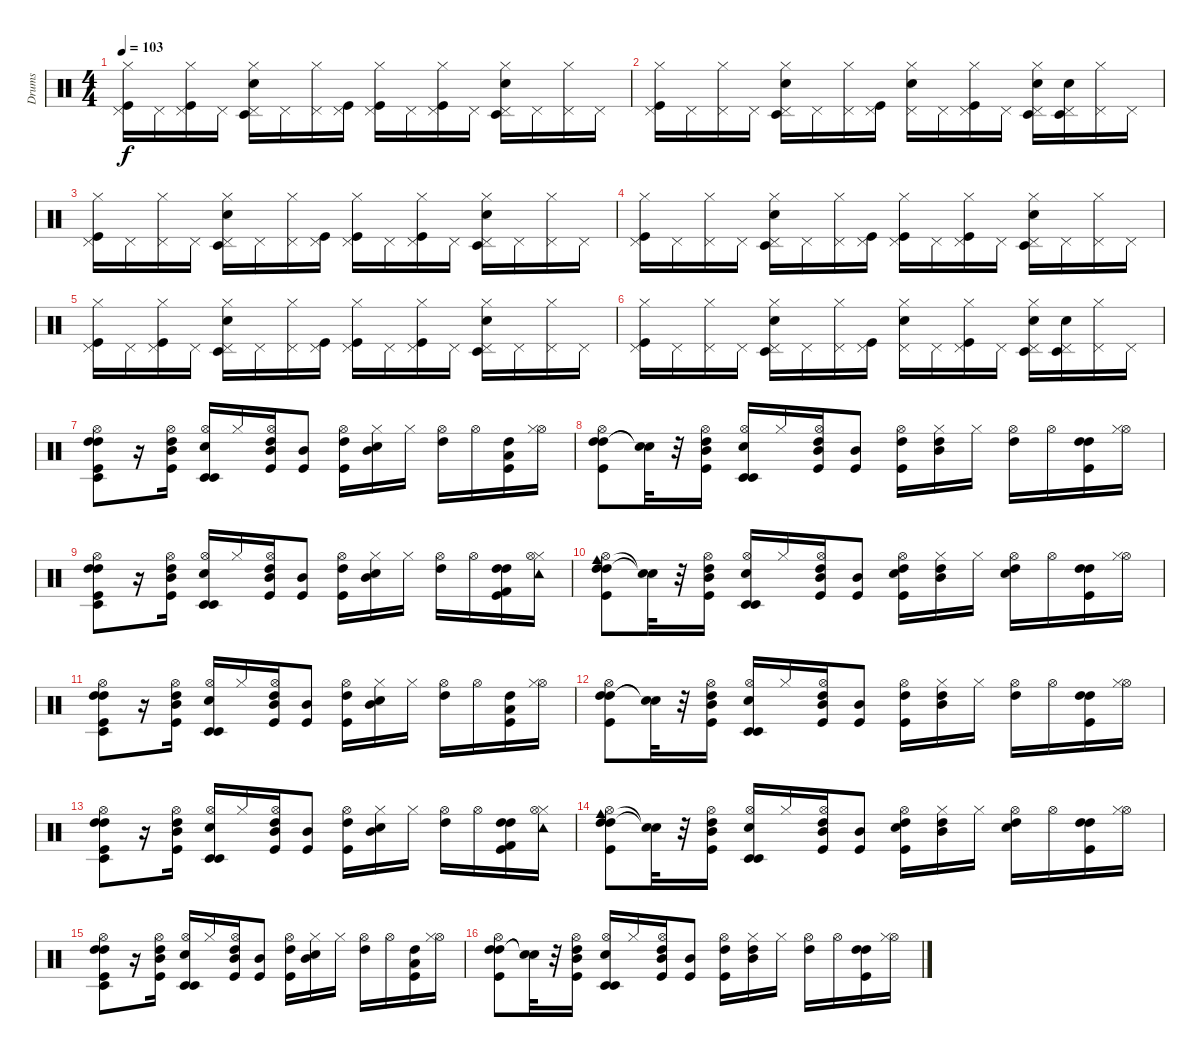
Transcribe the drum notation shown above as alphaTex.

\track ("Drums" "Drums") {instrument percussion}
\staff {score}
\articulation defaults
\ts (4 4)
\tempo 103
\clef neutral
\ks c
("Hi-Hat (closed)" "Kick (hit)" "Pedal Hi-Hat (hit)").16{dy f} "Pedal Hi-Hat (hit)".16 ("Kick (hit)" "Hi-Hat (closed)" "Pedal Hi-Hat (hit)").16 "Pedal Hi-Hat (hit)".16 ("Timbale low (hit)" "Hi-Hat (closed)" "Electric Snare (hit)" "Pedal Hi-Hat (hit)").16 "Pedal Hi-Hat (hit)".16 ("Hi-Hat (closed)" "Pedal Hi-Hat (hit)").16 ("Kick (hit)" "Pedal Hi-Hat (hit)").16 ("Kick (hit)" "Hi-Hat (closed)" "Pedal Hi-Hat (hit)").16 "Pedal Hi-Hat (hit)".16 ("Kick (hit)" "Hi-Hat (closed)" "Pedal Hi-Hat (hit)").16 "Pedal Hi-Hat (hit)".16 ("Timbale low (hit)" "Electric Snare (hit)" "Hi-Hat (closed)" "Pedal Hi-Hat (hit)").16 "Pedal Hi-Hat (hit)".16 ("Hi-Hat (closed)" "Pedal Hi-Hat (hit)").16 "Pedal Hi-Hat (hit)".16 |
("Hi-Hat (closed)" "Kick (hit)" "Pedal Hi-Hat (hit)").16 "Pedal Hi-Hat (hit)".16 ("Hi-Hat (closed)" "Pedal Hi-Hat (hit)").16 "Pedal Hi-Hat (hit)".16 ("Hi-Hat (closed)" "Electric Snare (hit)" "Timbale low (hit)" "Pedal Hi-Hat (hit)").16 "Pedal Hi-Hat (hit)".16 ("Hi-Hat (closed)" "Pedal Hi-Hat (hit)").16 ("Pedal Hi-Hat (hit)" "Kick (hit)").16 ("Hi-Hat (closed)" "Pedal Hi-Hat (hit)" "Electric Snare (hit)").16 "Pedal Hi-Hat (hit)".16 ("Kick (hit)" "Hi-Hat (closed)" "Pedal Hi-Hat (hit)").16 "Pedal Hi-Hat (hit)".16 ("Electric Snare (hit)" "Hi-Hat (closed)" "Timbale low (hit)" "Pedal Hi-Hat (hit)").16 ("Timbale low (hit)" "Electric Snare (hit)" "Pedal Hi-Hat (hit)").16 ("Hi-Hat (closed)" "Pedal Hi-Hat (hit)").16 "Pedal Hi-Hat (hit)".16 |
("Hi-Hat (closed)" "Kick (hit)" "Pedal Hi-Hat (hit)").16 "Pedal Hi-Hat (hit)".16 ("Hi-Hat (closed)" "Pedal Hi-Hat (hit)").16 "Pedal Hi-Hat (hit)".16 ("Hi-Hat (closed)" "Timbale low (hit)" "Electric Snare (hit)" "Pedal Hi-Hat (hit)").16 "Pedal Hi-Hat (hit)".16 ("Hi-Hat (closed)" "Pedal Hi-Hat (hit)").16 ("Kick (hit)" "Pedal Hi-Hat (hit)").16 ("Hi-Hat (closed)" "Kick (hit)" "Pedal Hi-Hat (hit)").16 "Pedal Hi-Hat (hit)".16 ("Hi-Hat (closed)" "Kick (hit)" "Pedal Hi-Hat (hit)").16 "Pedal Hi-Hat (hit)".16 ("Timbale low (hit)" "Electric Snare (hit)" "Hi-Hat (closed)" "Pedal Hi-Hat (hit)").16 "Pedal Hi-Hat (hit)".16 ("Hi-Hat (closed)" "Pedal Hi-Hat (hit)").16 "Pedal Hi-Hat (hit)".16 |
("Hi-Hat (closed)" "Kick (hit)" "Pedal Hi-Hat (hit)").16 "Pedal Hi-Hat (hit)".16 ("Hi-Hat (closed)" "Pedal Hi-Hat (hit)").16 "Pedal Hi-Hat (hit)".16 ("Timbale low (hit)" "Hi-Hat (closed)" "Electric Snare (hit)" "Pedal Hi-Hat (hit)").16 "Pedal Hi-Hat (hit)".16 ("Hi-Hat (closed)" "Pedal Hi-Hat (hit)").16 ("Kick (hit)" "Pedal Hi-Hat (hit)").16 ("Hi-Hat (closed)" "Kick (hit)" "Pedal Hi-Hat (hit)").16 "Pedal Hi-Hat (hit)".16 ("Hi-Hat (closed)" "Kick (hit)" "Pedal Hi-Hat (hit)").16 "Pedal Hi-Hat (hit)".16 ("Electric Snare (hit)" "Hi-Hat (closed)" "Timbale low (hit)" "Pedal Hi-Hat (hit)").16 "Pedal Hi-Hat (hit)".16 ("Hi-Hat (closed)" "Pedal Hi-Hat (hit)").16 "Pedal Hi-Hat (hit)".16 |
("Hi-Hat (closed)" "Kick (hit)" "Pedal Hi-Hat (hit)").16 "Pedal Hi-Hat (hit)".16 ("Kick (hit)" "Hi-Hat (closed)" "Pedal Hi-Hat (hit)").16 "Pedal Hi-Hat (hit)".16 ("Timbale low (hit)" "Hi-Hat (closed)" "Electric Snare (hit)" "Pedal Hi-Hat (hit)").16 "Pedal Hi-Hat (hit)".16 ("Hi-Hat (closed)" "Pedal Hi-Hat (hit)").16 ("Kick (hit)" "Pedal Hi-Hat (hit)").16 ("Kick (hit)" "Hi-Hat (closed)" "Pedal Hi-Hat (hit)").16 "Pedal Hi-Hat (hit)".16 ("Kick (hit)" "Hi-Hat (closed)" "Pedal Hi-Hat (hit)").16 "Pedal Hi-Hat (hit)".16 ("Timbale low (hit)" "Electric Snare (hit)" "Hi-Hat (closed)" "Pedal Hi-Hat (hit)").16 "Pedal Hi-Hat (hit)".16 ("Hi-Hat (closed)" "Pedal Hi-Hat (hit)").16 "Pedal Hi-Hat (hit)".16 |
("Hi-Hat (closed)" "Kick (hit)" "Pedal Hi-Hat (hit)").16 "Pedal Hi-Hat (hit)".16 ("Hi-Hat (closed)" "Pedal Hi-Hat (hit)").16 "Pedal Hi-Hat (hit)".16 ("Hi-Hat (closed)" "Electric Snare (hit)" "Timbale low (hit)" "Pedal Hi-Hat (hit)").16 "Pedal Hi-Hat (hit)".16 ("Hi-Hat (closed)" "Pedal Hi-Hat (hit)").16 ("Pedal Hi-Hat (hit)" "Kick (hit)").16 ("Hi-Hat (closed)" "Pedal Hi-Hat (hit)" "Electric Snare (hit)").16 "Pedal Hi-Hat (hit)".16 ("Kick (hit)" "Hi-Hat (closed)" "Pedal Hi-Hat (hit)").16 "Pedal Hi-Hat (hit)".16 ("Electric Snare (hit)" "Hi-Hat (closed)" "Timbale low (hit)" "Pedal Hi-Hat (hit)").16 ("Timbale low (hit)" "Electric Snare (hit)" "Pedal Hi-Hat (hit)").16 ("Hi-Hat (closed)" "Pedal Hi-Hat (hit)").16 "Pedal Hi-Hat (hit)".16 |
("Kick (hit)" "Timbale low (hit)" "High Tom (hit)" "High Tom (hit)" "Hi-Hat (open)").8 r.16 ("Hi-Hat (open)" "High Tom (hit)" "Kick (hit)" "Mid Tom (hit)").16 ("Timbale low (hit)" "Timbale low (hit)" "Hi-Hat (open)" "Electric Snare (hit)").16 "Hi-Hat (closed)".16 ("Kick (hit)" "Hi-Hat (open)" "Mid Tom (hit)" "High Tom (hit)").16 ("Kick (hit)" "Mid Tom (hit)").8 ("Kick (hit)" "Hi-Hat (open)" "High Tom (hit)").16 ("Hi-Hat (closed)" "Mid Tom (hit)" "Electric Snare (hit)").16 "Hi-Hat (closed)".16 ("Hi-Hat (open)" "High Tom (hit)").16 "Hi-Hat (open)".16 ("Low Tom (hit)" "High Tom (hit)" "Kick (hit)").16 ("Hi-Hat (open)" "Hi-Hat (closed)").16 |
("High Tom (hit)" "High Tom (hit)" "Hi-Hat (open)" "Kick (hit)").8 ("Snare (hit)"{t} "Snare (hit)"{t}).32 r.32 ("Mid Tom (hit)" "High Tom (hit)" "Kick (hit)" "Hi-Hat (open)").16 ("Timbale low (hit)" "Timbale low (hit)" "Electric Snare (hit)" "Hi-Hat (open)").16 "Hi-Hat (closed)".16 ("High Tom (hit)" "Hi-Hat (open)" "Mid Tom (hit)" "Kick (hit)").16 ("Mid Tom (hit)" "Kick (hit)").8 ("High Tom (hit)" "Kick (hit)" "Hi-Hat (open)").16 ("Hi-Hat (closed)" "Mid Tom (hit)" "High Tom (hit)").16 "Hi-Hat (closed)".16 ("High Tom (hit)" "Hi-Hat (open)").16 "Hi-Hat (open)".16 ("High Tom (hit)" "Kick (hit)" "High Tom (hit)").16 ("Hi-Hat (open)" "Hi-Hat (closed)").16 |
("High Tom (hit)" "Hi-Hat (open)" "Timbale low (hit)" "High Tom (hit)" "Kick (hit)").8 r.16 ("Hi-Hat (open)" "Mid Tom (hit)" "High Tom (hit)" "Kick (hit)").16 ("Electric Snare (hit)" "Timbale low (hit)" "Timbale low (hit)" "Hi-Hat (open)").16 "Hi-Hat (closed)".16 ("Hi-Hat (open)" "Kick (hit)" "Mid Tom (hit)" "High Tom (hit)").16 ("Mid Tom (hit)" "Kick (hit)").8 ("Hi-Hat (open)" "Kick (hit)" "High Tom (hit)").16 ("Hi-Hat (closed)" "Electric Snare (hit)" "Mid Tom (hit)").16 "Hi-Hat (closed)".16 ("Hi-Hat (open)" "High Tom (hit)").16 "Hi-Hat (open)".16 ("Kick (hit)" "High Tom (hit)" "High Tom (hit)" "Kick (hit) 2").16 ("Hi-Hat (closed)" "Hi-Hat (open)" "Tambourine (hit)").16 |
("Cowbell medium (hit)" "High Tom (hit)" "Kick (hit)" "High Tom (hit)" "Hi-Hat (open)").8 ("Snare (hit)"{t} "Snare (hit)"{t}).32 r.32 ("Kick (hit)" "Mid Tom (hit)" "Hi-Hat (open)" "High Tom (hit)").16 ("Hi-Hat (open)" "Timbale low (hit)" "Electric Snare (hit)" "Timbale low (hit)").16 "Hi-Hat (closed)".16 ("High Tom (hit)" "Hi-Hat (open)" "Mid Tom (hit)" "Kick (hit)").16 ("Mid Tom (hit)" "Kick (hit)").8 ("Electric Snare (hit)" "Kick (hit)" "High Tom (hit)" "Hi-Hat (open)").16 ("Mid Tom (hit)" "High Tom (hit)" "Hi-Hat (closed)").16 "Hi-Hat (closed)".16 ("Hi-Hat (open)" "High Tom (hit)" "Electric Snare (hit)").16 "Hi-Hat (open)".16 ("Kick (hit)" "High Tom (hit)" "High Tom (hit)").16 ("Hi-Hat (open)" "Hi-Hat (closed)").16 |
("Kick (hit)" "Timbale low (hit)" "High Tom (hit)" "High Tom (hit)" "Hi-Hat (open)").8 r.16 ("Hi-Hat (open)" "High Tom (hit)" "Kick (hit)" "Mid Tom (hit)").16 ("Timbale low (hit)" "Timbale low (hit)" "Hi-Hat (open)" "Electric Snare (hit)").16 "Hi-Hat (closed)".16 ("Kick (hit)" "Hi-Hat (open)" "Mid Tom (hit)" "High Tom (hit)").16 ("Kick (hit)" "Mid Tom (hit)").8 ("Kick (hit)" "Hi-Hat (open)" "High Tom (hit)").16 ("Hi-Hat (closed)" "Mid Tom (hit)" "Electric Snare (hit)").16 "Hi-Hat (closed)".16 ("Hi-Hat (open)" "High Tom (hit)").16 "Hi-Hat (open)".16 ("Low Tom (hit)" "High Tom (hit)" "Kick (hit)").16 ("Hi-Hat (open)" "Hi-Hat (closed)").16 |
("High Tom (hit)" "High Tom (hit)" "Hi-Hat (open)" "Kick (hit)").8 ("Snare (hit)"{t} "Snare (hit)"{t}).32 r.32 ("Mid Tom (hit)" "High Tom (hit)" "Kick (hit)" "Hi-Hat (open)").16 ("Timbale low (hit)" "Timbale low (hit)" "Electric Snare (hit)" "Hi-Hat (open)").16 "Hi-Hat (closed)".16 ("High Tom (hit)" "Hi-Hat (open)" "Mid Tom (hit)" "Kick (hit)").16 ("Mid Tom (hit)" "Kick (hit)").8 ("High Tom (hit)" "Kick (hit)" "Hi-Hat (open)").16 ("Hi-Hat (closed)" "Mid Tom (hit)" "High Tom (hit)").16 "Hi-Hat (closed)".16 ("High Tom (hit)" "Hi-Hat (open)").16 "Hi-Hat (open)".16 ("High Tom (hit)" "Kick (hit)" "High Tom (hit)").16 ("Hi-Hat (open)" "Hi-Hat (closed)").16 |
("High Tom (hit)" "Hi-Hat (open)" "Timbale low (hit)" "High Tom (hit)" "Kick (hit)").8 r.16 ("Hi-Hat (open)" "Mid Tom (hit)" "High Tom (hit)" "Kick (hit)").16 ("Electric Snare (hit)" "Timbale low (hit)" "Timbale low (hit)" "Hi-Hat (open)").16 "Hi-Hat (closed)".16 ("Hi-Hat (open)" "Kick (hit)" "Mid Tom (hit)" "High Tom (hit)").16 ("Mid Tom (hit)" "Kick (hit)").8 ("Hi-Hat (open)" "Kick (hit)" "High Tom (hit)").16 ("Hi-Hat (closed)" "Electric Snare (hit)" "Mid Tom (hit)").16 "Hi-Hat (closed)".16 ("Hi-Hat (open)" "High Tom (hit)").16 "Hi-Hat (open)".16 ("Kick (hit)" "High Tom (hit)" "High Tom (hit)" "Kick (hit) 2").16 ("Hi-Hat (closed)" "Hi-Hat (open)" "Tambourine (hit)").16 |
("Cowbell medium (hit)" "High Tom (hit)" "Kick (hit)" "High Tom (hit)" "Hi-Hat (open)").8 ("Snare (hit)"{t} "Snare (hit)"{t}).32 r.32 ("Kick (hit)" "Mid Tom (hit)" "Hi-Hat (open)" "High Tom (hit)").16 ("Hi-Hat (open)" "Timbale low (hit)" "Electric Snare (hit)" "Timbale low (hit)").16 "Hi-Hat (closed)".16 ("High Tom (hit)" "Hi-Hat (open)" "Mid Tom (hit)" "Kick (hit)").16 ("Mid Tom (hit)" "Kick (hit)").8 ("Electric Snare (hit)" "Kick (hit)" "High Tom (hit)" "Hi-Hat (open)").16 ("Mid Tom (hit)" "High Tom (hit)" "Hi-Hat (closed)").16 "Hi-Hat (closed)".16 ("Hi-Hat (open)" "High Tom (hit)" "Electric Snare (hit)").16 "Hi-Hat (open)".16 ("Kick (hit)" "High Tom (hit)" "High Tom (hit)").16 ("Hi-Hat (open)" "Hi-Hat (closed)").16 |
("Kick (hit)" "Timbale low (hit)" "High Tom (hit)" "High Tom (hit)" "Hi-Hat (open)").8 r.16 ("Hi-Hat (open)" "High Tom (hit)" "Kick (hit)" "Mid Tom (hit)").16 ("Timbale low (hit)" "Timbale low (hit)" "Hi-Hat (open)" "Electric Snare (hit)").16 "Hi-Hat (closed)".16 ("Kick (hit)" "Hi-Hat (open)" "Mid Tom (hit)" "High Tom (hit)").16 ("Kick (hit)" "Mid Tom (hit)").8 ("Kick (hit)" "Hi-Hat (open)" "High Tom (hit)").16 ("Hi-Hat (closed)" "Mid Tom (hit)" "Electric Snare (hit)").16 "Hi-Hat (closed)".16 ("Hi-Hat (open)" "High Tom (hit)").16 "Hi-Hat (open)".16 ("Low Tom (hit)" "High Tom (hit)" "Kick (hit)").16 ("Hi-Hat (open)" "Hi-Hat (closed)").16 |
("High Tom (hit)" "High Tom (hit)" "Hi-Hat (open)" "Kick (hit)").8 ("Snare (hit)"{t} "Snare (hit)"{t}).32 r.32 ("Mid Tom (hit)" "High Tom (hit)" "Kick (hit)" "Hi-Hat (open)").16 ("Timbale low (hit)" "Timbale low (hit)" "Electric Snare (hit)" "Hi-Hat (open)").16 "Hi-Hat (closed)".16 ("High Tom (hit)" "Hi-Hat (open)" "Mid Tom (hit)" "Kick (hit)").16 ("Mid Tom (hit)" "Kick (hit)").8 ("High Tom (hit)" "Kick (hit)" "Hi-Hat (open)").16 ("Hi-Hat (closed)" "Mid Tom (hit)" "High Tom (hit)").16 "Hi-Hat (closed)".16 ("High Tom (hit)" "Hi-Hat (open)").16 "Hi-Hat (open)".16 ("High Tom (hit)" "Kick (hit)" "High Tom (hit)").16 ("Hi-Hat (open)" "Hi-Hat (closed)").16
